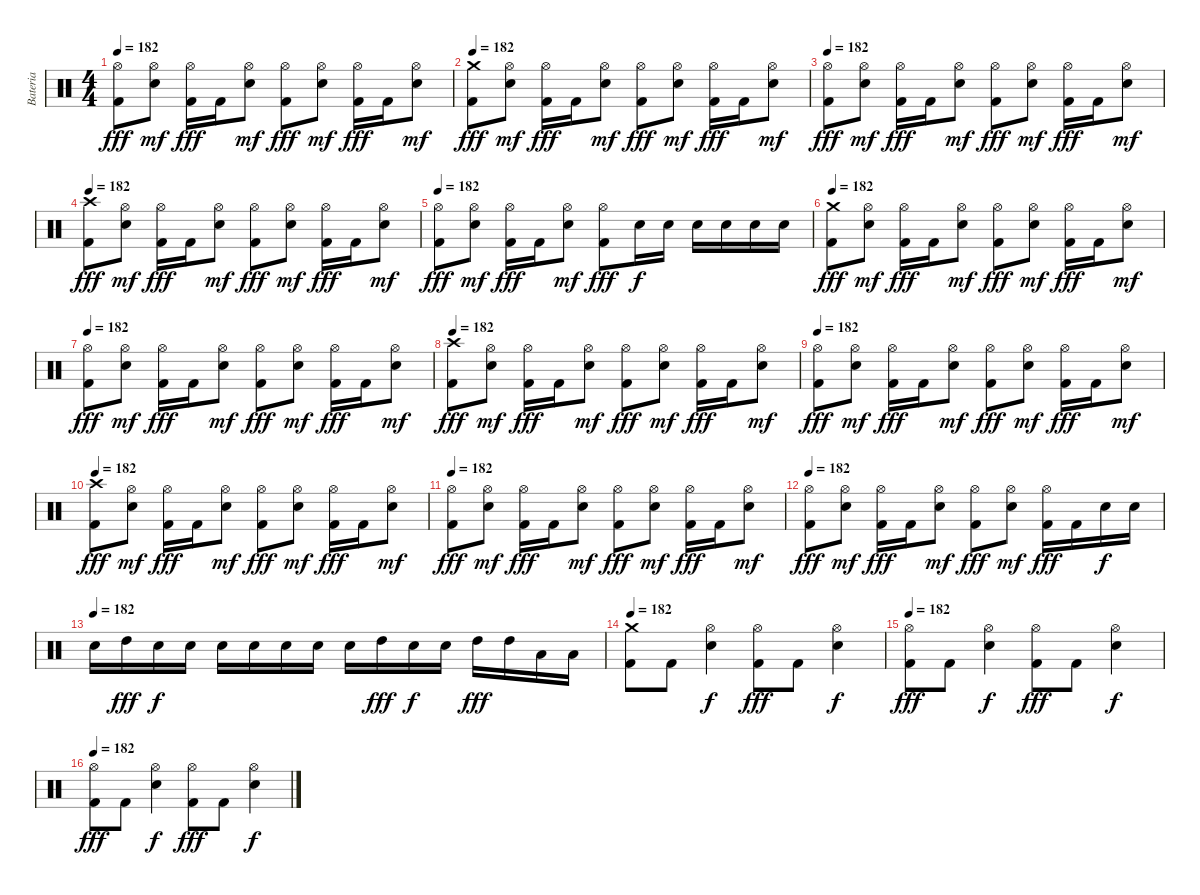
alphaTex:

\track ("Bateria" "Bateria") {instrument percussion}
\staff {score}
\articulation defaults
\ts (4 4)
\tempo 182
\clef neutral
\ks c
("Hi-Hat (open)" "Kick (hit) 2").8{dy fff} ("Hi-Hat (open)" "Electric Snare (hit)").8{dy mf} ("Hi-Hat (open)" "Kick (hit) 2").16{dy fff} "Kick (hit) 2".16 ("Hi-Hat (open)" "Electric Snare (hit)").8{dy mf} ("Hi-Hat (open)" "Kick (hit) 2").8{dy fff} ("Hi-Hat (open)" "Electric Snare (hit)").8{dy mf} ("Hi-Hat (open)" "Kick (hit) 2").16{dy fff} "Kick (hit) 2".16 ("Hi-Hat (open)" "Electric Snare (hit)").8{dy mf} |
\tempo 182
("Crash medium (hit)" "Kick (hit) 2").8{dy fff} ("Hi-Hat (open)" "Electric Snare (hit)").8{dy mf} ("Hi-Hat (open)" "Kick (hit) 2").16{dy fff} "Kick (hit) 2".16 ("Hi-Hat (open)" "Electric Snare (hit)").8{dy mf} ("Hi-Hat (open)" "Kick (hit) 2").8{dy fff} ("Hi-Hat (open)" "Electric Snare (hit)").8{dy mf} ("Hi-Hat (open)" "Kick (hit) 2").16{dy fff} "Kick (hit) 2".16 ("Hi-Hat (open)" "Electric Snare (hit)").8{dy mf} |
\tempo 182
("Hi-Hat (open)" "Kick (hit) 2").8{dy fff} ("Hi-Hat (open)" "Electric Snare (hit)").8{dy mf} ("Hi-Hat (open)" "Kick (hit) 2").16{dy fff} "Kick (hit) 2".16 ("Hi-Hat (open)" "Electric Snare (hit)").8{dy mf} ("Hi-Hat (open)" "Kick (hit) 2").8{dy fff} ("Hi-Hat (open)" "Electric Snare (hit)").8{dy mf} ("Hi-Hat (open)" "Kick (hit) 2").16{dy fff} "Kick (hit) 2".16 ("Hi-Hat (open)" "Electric Snare (hit)").8{dy mf} |
\tempo 182
("Crash high (hit)" "Kick (hit) 2").8{dy fff} ("Hi-Hat (open)" "Electric Snare (hit)").8{dy mf} ("Hi-Hat (open)" "Kick (hit) 2").16{dy fff} "Kick (hit) 2".16 ("Hi-Hat (open)" "Electric Snare (hit)").8{dy mf} ("Hi-Hat (open)" "Kick (hit) 2").8{dy fff} ("Hi-Hat (open)" "Electric Snare (hit)").8{dy mf} ("Hi-Hat (open)" "Kick (hit) 2").16{dy fff} "Kick (hit) 2".16 ("Hi-Hat (open)" "Electric Snare (hit)").8{dy mf} |
\tempo 182
("Hi-Hat (open)" "Kick (hit) 2").8{dy fff} ("Hi-Hat (open)" "Electric Snare (hit)").8{dy mf} ("Hi-Hat (open)" "Kick (hit) 2").16{dy fff} "Kick (hit) 2".16 ("Hi-Hat (open)" "Electric Snare (hit)").8{dy mf} ("Hi-Hat (open)" "Kick (hit) 2").8{dy fff} "Electric Snare (hit)".16{dy f} "Electric Snare (hit)".16 "Electric Snare (hit)".16 "Electric Snare (hit)".16 "Electric Snare (hit)".16 "Electric Snare (hit)".16 |
\tempo 182
("Crash medium (hit)" "Kick (hit) 2").8{dy fff} ("Hi-Hat (open)" "Electric Snare (hit)").8{dy mf} ("Hi-Hat (open)" "Kick (hit) 2").16{dy fff} "Kick (hit) 2".16 ("Hi-Hat (open)" "Electric Snare (hit)").8{dy mf} ("Hi-Hat (open)" "Kick (hit) 2").8{dy fff} ("Hi-Hat (open)" "Electric Snare (hit)").8{dy mf} ("Hi-Hat (open)" "Kick (hit) 2").16{dy fff} "Kick (hit) 2".16 ("Hi-Hat (open)" "Electric Snare (hit)").8{dy mf} |
\tempo 182
("Hi-Hat (open)" "Kick (hit) 2").8{dy fff} ("Hi-Hat (open)" "Electric Snare (hit)").8{dy mf} ("Hi-Hat (open)" "Kick (hit) 2").16{dy fff} "Kick (hit) 2".16 ("Hi-Hat (open)" "Electric Snare (hit)").8{dy mf} ("Hi-Hat (open)" "Kick (hit) 2").8{dy fff} ("Hi-Hat (open)" "Electric Snare (hit)").8{dy mf} ("Hi-Hat (open)" "Kick (hit) 2").16{dy fff} "Kick (hit) 2".16 ("Hi-Hat (open)" "Electric Snare (hit)").8{dy mf} |
\tempo 182
("Crash high (hit)" "Kick (hit) 2").8{dy fff} ("Hi-Hat (open)" "Electric Snare (hit)").8{dy mf} ("Hi-Hat (open)" "Kick (hit) 2").16{dy fff} "Kick (hit) 2".16 ("Hi-Hat (open)" "Electric Snare (hit)").8{dy mf} ("Hi-Hat (open)" "Kick (hit) 2").8{dy fff} ("Hi-Hat (open)" "Electric Snare (hit)").8{dy mf} ("Hi-Hat (open)" "Kick (hit) 2").16{dy fff} "Kick (hit) 2".16 ("Hi-Hat (open)" "Electric Snare (hit)").8{dy mf} |
\tempo 182
("Hi-Hat (open)" "Kick (hit) 2").8{dy fff} ("Hi-Hat (open)" "Electric Snare (hit)").8{dy mf} ("Hi-Hat (open)" "Kick (hit) 2").16{dy fff} "Kick (hit) 2".16 ("Hi-Hat (open)" "Electric Snare (hit)").8{dy mf} ("Hi-Hat (open)" "Kick (hit) 2").8{dy fff} ("Hi-Hat (open)" "Electric Snare (hit)").8{dy mf} ("Hi-Hat (open)" "Kick (hit) 2").16{dy fff} "Kick (hit) 2".16 ("Hi-Hat (open)" "Electric Snare (hit)").8{dy mf} |
\tempo 182
("Crash high (hit)" "Kick (hit) 2").8{dy fff} ("Hi-Hat (open)" "Electric Snare (hit)").8{dy mf} ("Hi-Hat (open)" "Kick (hit) 2").16{dy fff} "Kick (hit) 2".16 ("Hi-Hat (open)" "Electric Snare (hit)").8{dy mf} ("Hi-Hat (open)" "Kick (hit) 2").8{dy fff} ("Hi-Hat (open)" "Electric Snare (hit)").8{dy mf} ("Hi-Hat (open)" "Kick (hit) 2").16{dy fff} "Kick (hit) 2".16 ("Hi-Hat (open)" "Electric Snare (hit)").8{dy mf} |
\tempo 182
("Hi-Hat (open)" "Kick (hit) 2").8{dy fff} ("Hi-Hat (open)" "Electric Snare (hit)").8{dy mf} ("Hi-Hat (open)" "Kick (hit) 2").16{dy fff} "Kick (hit) 2".16 ("Hi-Hat (open)" "Electric Snare (hit)").8{dy mf} ("Hi-Hat (open)" "Kick (hit) 2").8{dy fff} ("Hi-Hat (open)" "Electric Snare (hit)").8{dy mf} ("Hi-Hat (open)" "Kick (hit) 2").16{dy fff} "Kick (hit) 2".16 ("Hi-Hat (open)" "Electric Snare (hit)").8{dy mf} |
\tempo 182
("Hi-Hat (open)" "Kick (hit) 2").8{dy fff} ("Hi-Hat (open)" "Electric Snare (hit)").8{dy mf} ("Hi-Hat (open)" "Kick (hit) 2").16{dy fff} "Kick (hit) 2".16 ("Hi-Hat (open)" "Electric Snare (hit)").8{dy mf} ("Hi-Hat (open)" "Kick (hit) 2").8{dy fff} ("Hi-Hat (open)" "Electric Snare (hit)").8{dy mf} ("Hi-Hat (open)" "Kick (hit) 2").16{dy fff} "Kick (hit) 2".16 "Electric Snare (hit)".16{dy f} "Electric Snare (hit)".16 |
\tempo (182)
"Electric Snare (hit)".16 "High Tom (hit)".16{dy fff} "Electric Snare (hit)".16{dy f} "Electric Snare (hit)".16 "Electric Snare (hit)".16 "Electric Snare (hit)".16 "Electric Snare (hit)".16 "Electric Snare (hit)".16 "Electric Snare (hit)".16 "High Tom (hit)".16{dy fff} "Electric Snare (hit)".16{dy f} "Electric Snare (hit)".16 "High Tom (hit)".16{dy fff} "High Tom (hit)".16 "Low Tom (hit)".16 "Low Tom (hit)".16 |
\tempo 182
("Crash medium (hit)" "Kick (hit) 2").8 "Kick (hit) 2".8 ("Hi-Hat (open)" "Electric Snare (hit)").4{dy f} ("Hi-Hat (open)" "Kick (hit) 2").8{dy fff} "Kick (hit) 2".8 ("Hi-Hat (open)" "Electric Snare (hit)").4{dy f} |
\tempo 182
("Hi-Hat (open)" "Kick (hit) 2").8{dy fff} "Kick (hit) 2".8 ("Hi-Hat (open)" "Electric Snare (hit)").4{dy f} ("Hi-Hat (open)" "Kick (hit) 2").8{dy fff} "Kick (hit) 2".8 ("Hi-Hat (open)" "Electric Snare (hit)").4{dy f} |
\tempo 182
("Hi-Hat (open)" "Kick (hit) 2").8{dy fff} "Kick (hit) 2".8 ("Hi-Hat (open)" "Electric Snare (hit)").4{dy f} ("Hi-Hat (open)" "Kick (hit) 2").8{dy fff} "Kick (hit) 2".8 ("Hi-Hat (open)" "Electric Snare (hit)").4{dy f}
